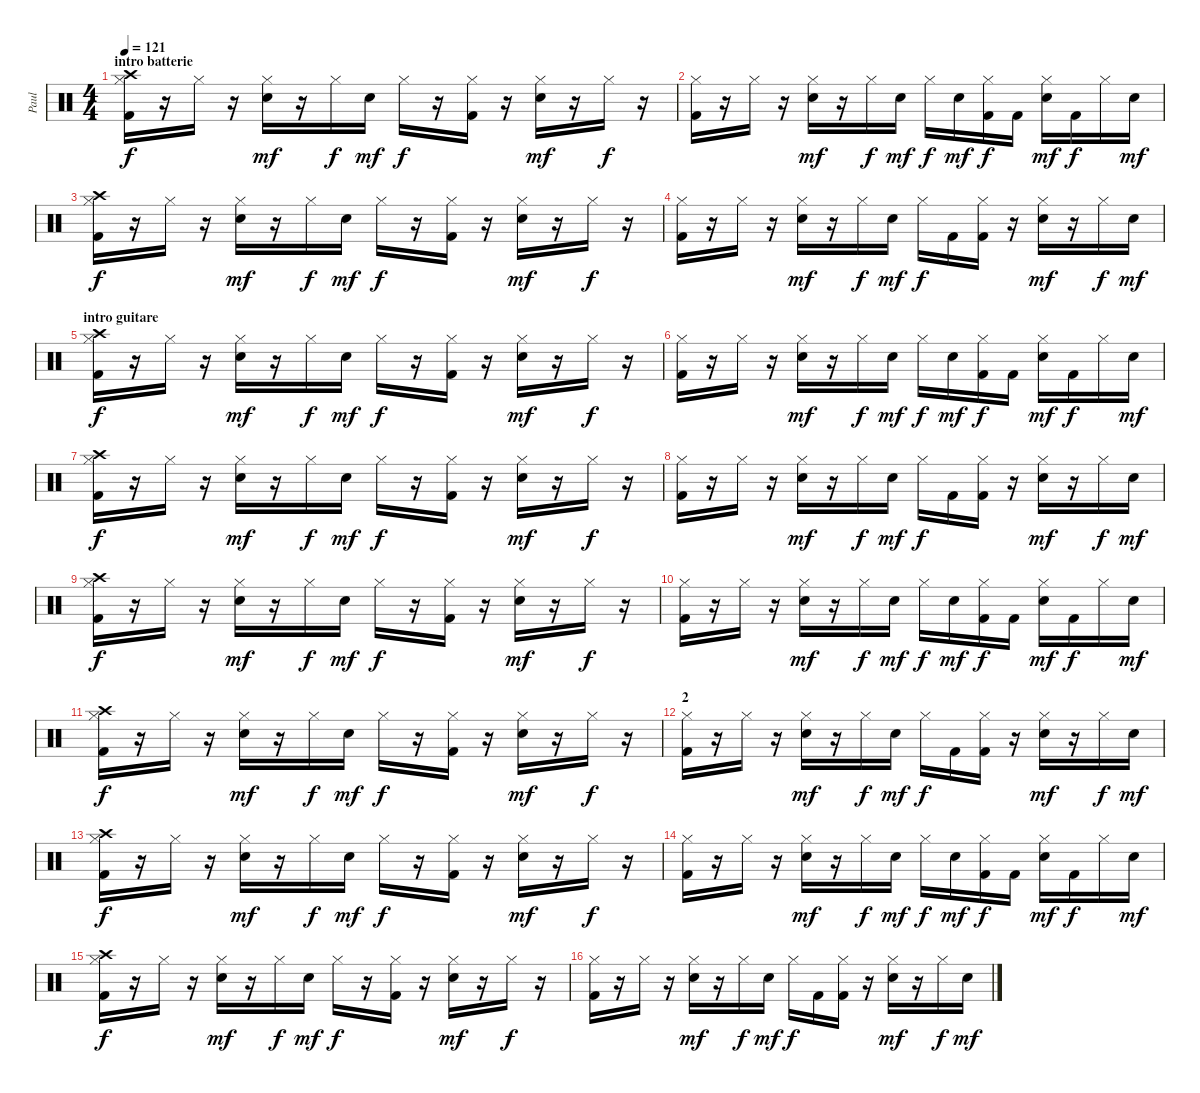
\track ("Paul" "Paul") {instrument percussion}
\staff {score}
\articulation defaults
\ts (4 4)
\section ("" "intro batterie")
\tempo 121
\clef neutral
\ks c
("Hi-Hat (closed)" "Crash high (hit)" "Kick (hit) 2").16{dy f} r.16 "Hi-Hat (closed)".16 r.16 ("Hi-Hat (closed)" "Snare (hit) 2").16{dy mf} r.16 "Hi-Hat (closed)".16{dy f} "Snare (hit) 2".16{dy mf} "Hi-Hat (closed)".16{dy f} r.16 ("Hi-Hat (closed)" "Kick (hit) 2").16 r.16 ("Hi-Hat (closed)" "Snare (hit) 2").16{dy mf} r.16 "Hi-Hat (closed)".16{dy f} r.16 |
("Hi-Hat (closed)" "Kick (hit) 2").16 r.16 "Hi-Hat (closed)".16 r.16 ("Hi-Hat (closed)" "Snare (hit) 2").16{dy mf} r.16 "Hi-Hat (closed)".16{dy f} "Snare (hit) 2".16{dy mf} "Hi-Hat (closed)".16{dy f} "Snare (hit) 2".16{dy mf} ("Hi-Hat (closed)" "Kick (hit) 2").16{dy f} "Kick (hit) 2".16 ("Hi-Hat (closed)" "Snare (hit) 2").16{dy mf} "Kick (hit) 2".16{dy f} "Hi-Hat (closed)".16 "Snare (hit) 2".16{dy mf} |
("Hi-Hat (closed)" "Crash high (hit)" "Kick (hit) 2").16{dy f} r.16 "Hi-Hat (closed)".16 r.16 ("Hi-Hat (closed)" "Snare (hit) 2").16{dy mf} r.16 "Hi-Hat (closed)".16{dy f} "Snare (hit) 2".16{dy mf} "Hi-Hat (closed)".16{dy f} r.16 ("Hi-Hat (closed)" "Kick (hit) 2").16 r.16 ("Hi-Hat (closed)" "Snare (hit) 2").16{dy mf} r.16 "Hi-Hat (closed)".16{dy f} r.16 |
("Hi-Hat (closed)" "Kick (hit) 2").16 r.16 "Hi-Hat (closed)".16 r.16 ("Hi-Hat (closed)" "Snare (hit) 2").16{dy mf} r.16 "Hi-Hat (closed)".16{dy f} "Snare (hit) 2".16{dy mf} "Hi-Hat (closed)".16{dy f} "Kick (hit) 2".16 ("Hi-Hat (closed)" "Kick (hit) 2").16 r.16 ("Hi-Hat (closed)" "Snare (hit) 2").16{dy mf} r.16 "Hi-Hat (closed)".16{dy f} "Snare (hit) 2".16{dy mf} |
\section ("" "intro guitare")
("Hi-Hat (closed)" "Crash high (hit)" "Kick (hit) 2").16{dy f} r.16 "Hi-Hat (closed)".16 r.16 ("Hi-Hat (closed)" "Snare (hit) 2").16{dy mf} r.16 "Hi-Hat (closed)".16{dy f} "Snare (hit) 2".16{dy mf} "Hi-Hat (closed)".16{dy f} r.16 ("Hi-Hat (closed)" "Kick (hit) 2").16 r.16 ("Hi-Hat (closed)" "Snare (hit) 2").16{dy mf} r.16 "Hi-Hat (closed)".16{dy f} r.16 |
("Hi-Hat (closed)" "Kick (hit) 2").16 r.16 "Hi-Hat (closed)".16 r.16 ("Hi-Hat (closed)" "Snare (hit) 2").16{dy mf} r.16 "Hi-Hat (closed)".16{dy f} "Snare (hit) 2".16{dy mf} "Hi-Hat (closed)".16{dy f} "Snare (hit) 2".16{dy mf} ("Hi-Hat (closed)" "Kick (hit) 2").16{dy f} "Kick (hit) 2".16 ("Hi-Hat (closed)" "Snare (hit) 2").16{dy mf} "Kick (hit) 2".16{dy f} "Hi-Hat (closed)".16 "Snare (hit) 2".16{dy mf} |
("Hi-Hat (closed)" "Crash high (hit)" "Kick (hit) 2").16{dy f} r.16 "Hi-Hat (closed)".16 r.16 ("Hi-Hat (closed)" "Snare (hit) 2").16{dy mf} r.16 "Hi-Hat (closed)".16{dy f} "Snare (hit) 2".16{dy mf} "Hi-Hat (closed)".16{dy f} r.16 ("Hi-Hat (closed)" "Kick (hit) 2").16 r.16 ("Hi-Hat (closed)" "Snare (hit) 2").16{dy mf} r.16 "Hi-Hat (closed)".16{dy f} r.16 |
("Hi-Hat (closed)" "Kick (hit) 2").16 r.16 "Hi-Hat (closed)".16 r.16 ("Hi-Hat (closed)" "Snare (hit) 2").16{dy mf} r.16 "Hi-Hat (closed)".16{dy f} "Snare (hit) 2".16{dy mf} "Hi-Hat (closed)".16{dy f} "Kick (hit) 2".16 ("Hi-Hat (closed)" "Kick (hit) 2").16 r.16 ("Hi-Hat (closed)" "Snare (hit) 2").16{dy mf} r.16 "Hi-Hat (closed)".16{dy f} "Snare (hit) 2".16{dy mf} |
("Hi-Hat (closed)" "Crash high (hit)" "Kick (hit) 2").16{dy f} r.16 "Hi-Hat (closed)".16 r.16 ("Hi-Hat (closed)" "Snare (hit) 2").16{dy mf} r.16 "Hi-Hat (closed)".16{dy f} "Snare (hit) 2".16{dy mf} "Hi-Hat (closed)".16{dy f} r.16 ("Hi-Hat (closed)" "Kick (hit) 2").16 r.16 ("Hi-Hat (closed)" "Snare (hit) 2").16{dy mf} r.16 "Hi-Hat (closed)".16{dy f} r.16 |
("Hi-Hat (closed)" "Kick (hit) 2").16 r.16 "Hi-Hat (closed)".16 r.16 ("Hi-Hat (closed)" "Snare (hit) 2").16{dy mf} r.16 "Hi-Hat (closed)".16{dy f} "Snare (hit) 2".16{dy mf} "Hi-Hat (closed)".16{dy f} "Snare (hit) 2".16{dy mf} ("Hi-Hat (closed)" "Kick (hit) 2").16{dy f} "Kick (hit) 2".16 ("Hi-Hat (closed)" "Snare (hit) 2").16{dy mf} "Kick (hit) 2".16{dy f} "Hi-Hat (closed)".16 "Snare (hit) 2".16{dy mf} |
("Hi-Hat (closed)" "Crash high (hit)" "Kick (hit) 2").16{dy f} r.16 "Hi-Hat (closed)".16 r.16 ("Hi-Hat (closed)" "Snare (hit) 2").16{dy mf} r.16 "Hi-Hat (closed)".16{dy f} "Snare (hit) 2".16{dy mf} "Hi-Hat (closed)".16{dy f} r.16 ("Hi-Hat (closed)" "Kick (hit) 2").16 r.16 ("Hi-Hat (closed)" "Snare (hit) 2").16{dy mf} r.16 "Hi-Hat (closed)".16{dy f} r.16 |
\section ("" "2")
("Hi-Hat (closed)" "Kick (hit) 2").16 r.16 "Hi-Hat (closed)".16 r.16 ("Hi-Hat (closed)" "Snare (hit) 2").16{dy mf} r.16 "Hi-Hat (closed)".16{dy f} "Snare (hit) 2".16{dy mf} "Hi-Hat (closed)".16{dy f} "Kick (hit) 2".16 ("Hi-Hat (closed)" "Kick (hit) 2").16 r.16 ("Hi-Hat (closed)" "Snare (hit) 2").16{dy mf} r.16 "Hi-Hat (closed)".16{dy f} "Snare (hit) 2".16{dy mf} |
("Hi-Hat (closed)" "Crash high (hit)" "Kick (hit) 2").16{dy f} r.16 "Hi-Hat (closed)".16 r.16 ("Hi-Hat (closed)" "Snare (hit) 2").16{dy mf} r.16 "Hi-Hat (closed)".16{dy f} "Snare (hit) 2".16{dy mf} "Hi-Hat (closed)".16{dy f} r.16 ("Hi-Hat (closed)" "Kick (hit) 2").16 r.16 ("Hi-Hat (closed)" "Snare (hit) 2").16{dy mf} r.16 "Hi-Hat (closed)".16{dy f} r.16 |
("Hi-Hat (closed)" "Kick (hit) 2").16 r.16 "Hi-Hat (closed)".16 r.16 ("Hi-Hat (closed)" "Snare (hit) 2").16{dy mf} r.16 "Hi-Hat (closed)".16{dy f} "Snare (hit) 2".16{dy mf} "Hi-Hat (closed)".16{dy f} "Snare (hit) 2".16{dy mf} ("Hi-Hat (closed)" "Kick (hit) 2").16{dy f} "Kick (hit) 2".16 ("Hi-Hat (closed)" "Snare (hit) 2").16{dy mf} "Kick (hit) 2".16{dy f} "Hi-Hat (closed)".16 "Snare (hit) 2".16{dy mf} |
("Hi-Hat (closed)" "Crash high (hit)" "Kick (hit) 2").16{dy f} r.16 "Hi-Hat (closed)".16 r.16 ("Hi-Hat (closed)" "Snare (hit) 2").16{dy mf} r.16 "Hi-Hat (closed)".16{dy f} "Snare (hit) 2".16{dy mf} "Hi-Hat (closed)".16{dy f} r.16 ("Hi-Hat (closed)" "Kick (hit) 2").16 r.16 ("Hi-Hat (closed)" "Snare (hit) 2").16{dy mf} r.16 "Hi-Hat (closed)".16{dy f} r.16 |
("Hi-Hat (closed)" "Kick (hit) 2").16 r.16 "Hi-Hat (closed)".16 r.16 ("Hi-Hat (closed)" "Snare (hit) 2").16{dy mf} r.16 "Hi-Hat (closed)".16{dy f} "Snare (hit) 2".16{dy mf} "Hi-Hat (closed)".16{dy f} "Kick (hit) 2".16 ("Hi-Hat (closed)" "Kick (hit) 2").16 r.16 ("Hi-Hat (closed)" "Snare (hit) 2").16{dy mf} r.16 "Hi-Hat (closed)".16{dy f} "Snare (hit) 2".16{dy mf}
